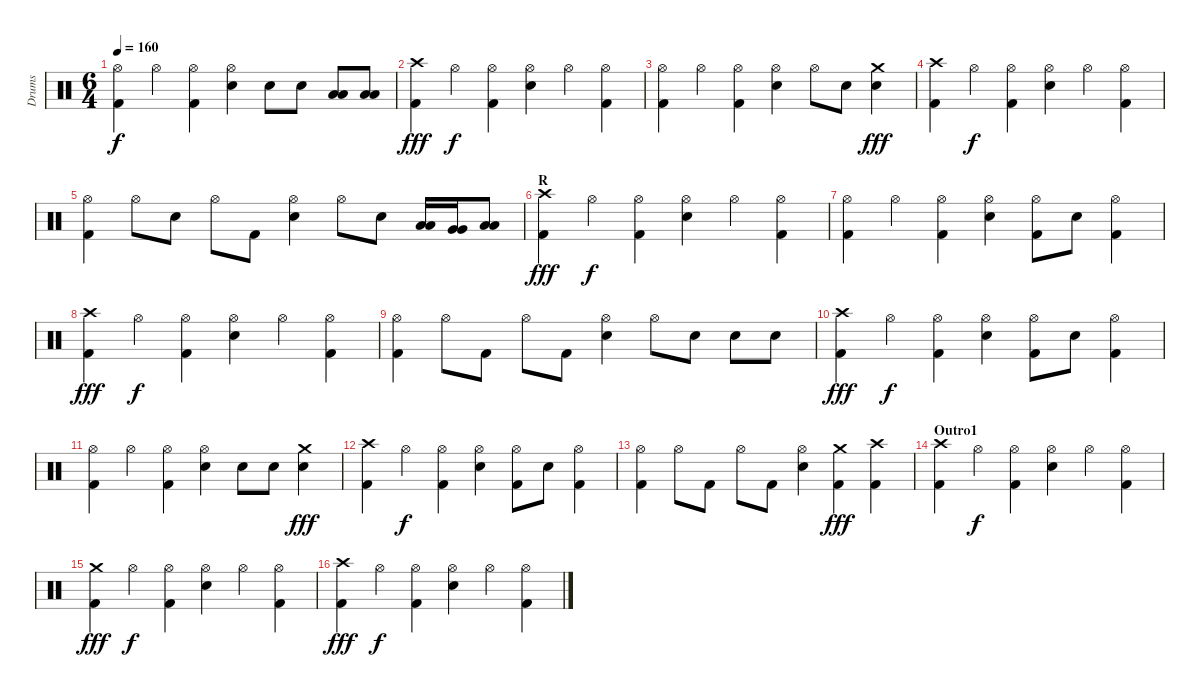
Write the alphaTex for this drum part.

\track ("Drums" "Drums") {instrument percussion}
\staff {score}
\articulation defaults
\ts (6 4)
\tempo 160
\clef neutral
\ks c
("Kick (hit) 2" "Hi-Hat (open)").4{dy f} "Hi-Hat (open)".4 ("Kick (hit) 2" "Hi-Hat (open)").4 ("Electric Snare (hit)" "Hi-Hat (open)").4 "Electric Snare (hit)".8 "Electric Snare (hit)".8 ("Low Tom (hit)" "Low Tom (hit)").8 ("Low Tom (hit)" "Low Tom (hit)").8 |
("Kick (hit) 2" "Crash high (hit)").4{dy fff} "Hi-Hat (open)".4{dy f} ("Kick (hit) 2" "Hi-Hat (open)").4 ("Electric Snare (hit)" "Hi-Hat (open)").4 "Hi-Hat (open)".4 ("Kick (hit) 2" "Hi-Hat (open)").4 |
("Kick (hit) 2" "Hi-Hat (open)").4 "Hi-Hat (open)".4 ("Kick (hit) 2" "Hi-Hat (open)").4 ("Electric Snare (hit)" "Hi-Hat (open)").4 "Hi-Hat (open)".8 "Electric Snare (hit)".8 ("Electric Snare (hit)" "Crash medium (hit)").4{dy fff} |
("Kick (hit) 2" "Crash high (hit)").4 "Hi-Hat (open)".4{dy f} ("Kick (hit) 2" "Hi-Hat (open)").4 ("Electric Snare (hit)" "Hi-Hat (open)").4 "Hi-Hat (open)".4 ("Kick (hit) 2" "Hi-Hat (open)").4 |
("Kick (hit) 2" "Hi-Hat (open)").4 "Hi-Hat (open)".8 "Electric Snare (hit)".8 "Hi-Hat (open)".8 "Kick (hit) 2".8 ("Electric Snare (hit)" "Hi-Hat (open)").4 "Hi-Hat (open)".8 "Electric Snare (hit)".8 ("Low Tom (hit)" "Low Tom (hit)").16 ("Very Low Tom (hit)" "Very Low Tom (hit)").16 ("Low Floor Tom (hit)" "Low Floor Tom (hit)").8 |
\section ("" "R")
("Kick (hit) 2" "Crash high (hit)").4{dy fff} "Hi-Hat (open)".4{dy f} ("Kick (hit) 2" "Hi-Hat (open)").4 ("Electric Snare (hit)" "Hi-Hat (open)").4 "Hi-Hat (open)".4 ("Kick (hit) 2" "Hi-Hat (open)").4 |
("Kick (hit) 2" "Hi-Hat (open)").4 "Hi-Hat (open)".4 ("Kick (hit) 2" "Hi-Hat (open)").4 ("Electric Snare (hit)" "Hi-Hat (open)").4 ("Kick (hit) 2" "Hi-Hat (open)").8 "Electric Snare (hit)".8 ("Kick (hit) 2" "Hi-Hat (open)").4 |
("Kick (hit) 2" "Crash high (hit)").4{dy fff} "Hi-Hat (open)".4{dy f} ("Kick (hit) 2" "Hi-Hat (open)").4 ("Electric Snare (hit)" "Hi-Hat (open)").4 "Hi-Hat (open)".4 ("Kick (hit) 2" "Hi-Hat (open)").4 |
("Kick (hit) 2" "Hi-Hat (open)").4 "Hi-Hat (open)".8 "Kick (hit) 2".8 "Hi-Hat (open)".8 "Kick (hit) 2".8 ("Electric Snare (hit)" "Hi-Hat (open)").4 "Hi-Hat (open)".8 "Electric Snare (hit)".8 "Electric Snare (hit)".8 "Electric Snare (hit)".8 |
("Kick (hit) 2" "Crash high (hit)").4{dy fff} "Hi-Hat (open)".4{dy f} ("Kick (hit) 2" "Hi-Hat (open)").4 ("Electric Snare (hit)" "Hi-Hat (open)").4 ("Kick (hit) 2" "Hi-Hat (open)").8 "Electric Snare (hit)".8 ("Kick (hit) 2" "Hi-Hat (open)").4 |
("Kick (hit) 2" "Hi-Hat (open)").4 "Hi-Hat (open)".4 ("Kick (hit) 2" "Hi-Hat (open)").4 ("Electric Snare (hit)" "Hi-Hat (open)").4 "Electric Snare (hit)".8 "Electric Snare (hit)".8 ("Electric Snare (hit)" "Crash medium (hit)").4{dy fff} |
("Kick (hit) 2" "Crash high (hit)").4 "Hi-Hat (open)".4{dy f} ("Kick (hit) 2" "Hi-Hat (open)").4 ("Electric Snare (hit)" "Hi-Hat (open)").4 ("Kick (hit) 2" "Hi-Hat (open)").8 "Electric Snare (hit)".8 ("Kick (hit) 2" "Hi-Hat (open)").4 |
("Kick (hit) 2" "Hi-Hat (open)").4 "Hi-Hat (open)".8 "Kick (hit) 2".8 "Hi-Hat (open)".8 "Kick (hit) 2".8 ("Electric Snare (hit)" "Hi-Hat (open)").4 ("Kick (hit) 2" "Crash medium (hit)").4{dy fff} ("Kick (hit) 2" "Crash high (hit)").4 |
\section ("" "Outro1")
("Kick (hit) 2" "Crash high (hit)").4 "Hi-Hat (open)".4{dy f} ("Kick (hit) 2" "Hi-Hat (open)").4 ("Electric Snare (hit)" "Hi-Hat (open)").4 "Hi-Hat (open)".4 ("Kick (hit) 2" "Hi-Hat (open)").4 |
("Kick (hit) 2" "Crash medium (hit)").4{dy fff} "Hi-Hat (open)".4{dy f} ("Kick (hit) 2" "Hi-Hat (open)").4 ("Electric Snare (hit)" "Hi-Hat (open)").4 "Hi-Hat (open)".4 ("Kick (hit) 2" "Hi-Hat (open)").4 |
("Kick (hit) 2" "Crash high (hit)").4{dy fff} "Hi-Hat (open)".4{dy f} ("Kick (hit) 2" "Hi-Hat (open)").4 ("Electric Snare (hit)" "Hi-Hat (open)").4 "Hi-Hat (open)".4 ("Kick (hit) 2" "Hi-Hat (open)").4
